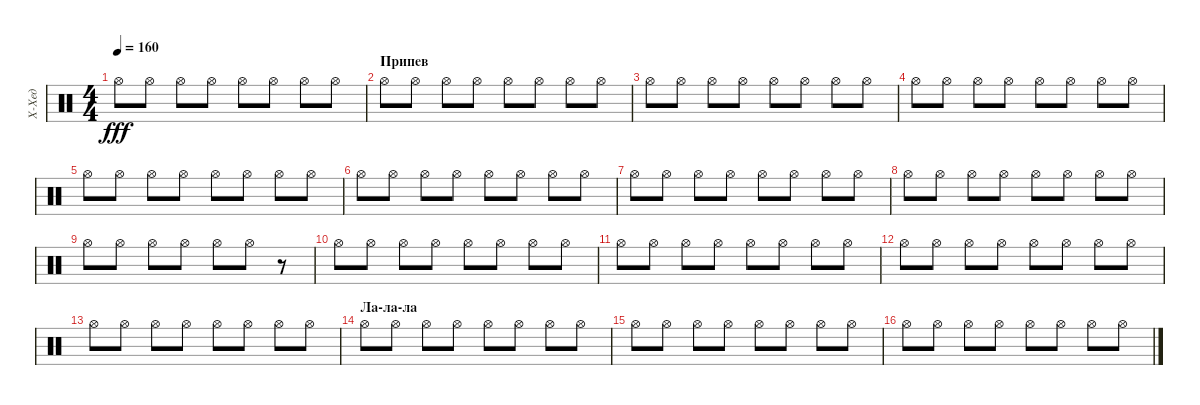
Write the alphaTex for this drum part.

\track ("Х-Хед" "Х-Хед") {instrument percussion}
\staff {score}
\articulation defaults
\ts (4 4)
\tempo 160
\clef neutral
\ks c "Hi-Hat (open)".8{dy fff} "Hi-Hat (open)".8 "Hi-Hat (open)".8 "Hi-Hat (open)".8 "Hi-Hat (open)".8 "Hi-Hat (open)".8 "Hi-Hat (open)".8 "Hi-Hat (open)".8
|
\section ("" "Припев")
"Hi-Hat (open)".8 "Hi-Hat (open)".8 "Hi-Hat (open)".8 "Hi-Hat (open)".8 "Hi-Hat (open)".8 "Hi-Hat (open)".8 "Hi-Hat (open)".8 "Hi-Hat (open)".8 |
"Hi-Hat (open)".8 "Hi-Hat (open)".8 "Hi-Hat (open)".8 "Hi-Hat (open)".8 "Hi-Hat (open)".8 "Hi-Hat (open)".8 "Hi-Hat (open)".8 "Hi-Hat (open)".8 |
"Hi-Hat (open)".8 "Hi-Hat (open)".8 "Hi-Hat (open)".8 "Hi-Hat (open)".8 "Hi-Hat (open)".8 "Hi-Hat (open)".8 "Hi-Hat (open)".8 "Hi-Hat (open)".8 |
"Hi-Hat (open)".8 "Hi-Hat (open)".8 "Hi-Hat (open)".8 "Hi-Hat (open)".8 "Hi-Hat (open)".8 "Hi-Hat (open)".8 "Hi-Hat (open)".8 "Hi-Hat (open)".8 |
"Hi-Hat (open)".8 "Hi-Hat (open)".8 "Hi-Hat (open)".8 "Hi-Hat (open)".8 "Hi-Hat (open)".8 "Hi-Hat (open)".8 "Hi-Hat (open)".8 "Hi-Hat (open)".8 |
"Hi-Hat (open)".8 "Hi-Hat (open)".8 "Hi-Hat (open)".8 "Hi-Hat (open)".8 "Hi-Hat (open)".8 "Hi-Hat (open)".8 "Hi-Hat (open)".8 "Hi-Hat (open)".8 |
"Hi-Hat (open)".8 "Hi-Hat (open)".8 "Hi-Hat (open)".8 "Hi-Hat (open)".8 "Hi-Hat (open)".8 "Hi-Hat (open)".8 "Hi-Hat (open)".8 "Hi-Hat (open)".8 |
"Hi-Hat (open)".8 "Hi-Hat (open)".8 "Hi-Hat (open)".8 "Hi-Hat (open)".8 "Hi-Hat (open)".8 "Hi-Hat (open)".8 r.8 |
"Hi-Hat (open)".8 "Hi-Hat (open)".8 "Hi-Hat (open)".8 "Hi-Hat (open)".8 "Hi-Hat (open)".8 "Hi-Hat (open)".8 "Hi-Hat (open)".8 "Hi-Hat (open)".8 |
"Hi-Hat (open)".8 "Hi-Hat (open)".8 "Hi-Hat (open)".8 "Hi-Hat (open)".8 "Hi-Hat (open)".8 "Hi-Hat (open)".8 "Hi-Hat (open)".8 "Hi-Hat (open)".8 |
"Hi-Hat (open)".8 "Hi-Hat (open)".8 "Hi-Hat (open)".8 "Hi-Hat (open)".8 "Hi-Hat (open)".8 "Hi-Hat (open)".8 "Hi-Hat (open)".8 "Hi-Hat (open)".8 |
"Hi-Hat (open)".8 "Hi-Hat (open)".8 "Hi-Hat (open)".8 "Hi-Hat (open)".8 "Hi-Hat (open)".8 "Hi-Hat (open)".8 "Hi-Hat (open)".8 "Hi-Hat (open)".8 |
\section ("" "Ла-ла-ла")
"Hi-Hat (open)".8 "Hi-Hat (open)".8 "Hi-Hat (open)".8 "Hi-Hat (open)".8 "Hi-Hat (open)".8 "Hi-Hat (open)".8 "Hi-Hat (open)".8 "Hi-Hat (open)".8 |
"Hi-Hat (open)".8 "Hi-Hat (open)".8 "Hi-Hat (open)".8 "Hi-Hat (open)".8 "Hi-Hat (open)".8 "Hi-Hat (open)".8 "Hi-Hat (open)".8 "Hi-Hat (open)".8 |
"Hi-Hat (open)".8 "Hi-Hat (open)".8 "Hi-Hat (open)".8 "Hi-Hat (open)".8 "Hi-Hat (open)".8 "Hi-Hat (open)".8 "Hi-Hat (open)".8 "Hi-Hat (open)".8
